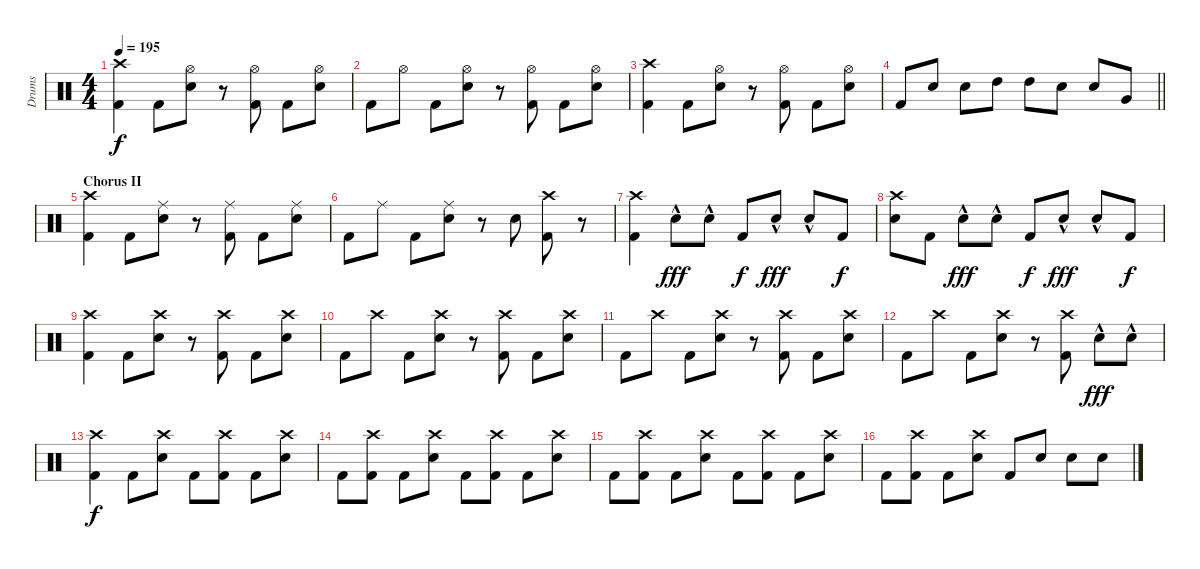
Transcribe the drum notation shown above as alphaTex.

\track ("Drums" "Drums") {instrument percussion}
\staff {score}
\articulation defaults
\ts (4 4)
\tempo 195
\clef neutral
\ks c
("Crash high (hit)" "Kick (hit) 2").4{dy f} "Kick (hit) 2".8 ("Hi-Hat (open)" "Electric Snare (hit)").8 r.8 ("Hi-Hat (open)" "Kick (hit) 2").8 "Kick (hit) 2".8 ("Hi-Hat (open)" "Electric Snare (hit)").8 |
"Kick (hit) 2".8 "Hi-Hat (open)".8 "Kick (hit) 2".8 ("Hi-Hat (open)" "Electric Snare (hit)").8 r.8 ("Hi-Hat (open)" "Kick (hit) 2").8 "Kick (hit) 2".8 ("Hi-Hat (open)" "Electric Snare (hit)").8 |
("Crash high (hit)" "Kick (hit) 2").4 "Kick (hit) 2".8 ("Hi-Hat (open)" "Electric Snare (hit)").8 r.8 ("Hi-Hat (open)" "Kick (hit) 2").8 "Kick (hit) 2".8 ("Hi-Hat (open)" "Electric Snare (hit)").8 |
\barLineRight lightlight "Kick (hit) 2".8 "Electric Snare (hit)".8 "Electric Snare (hit)".8 "High Tom (hit)".8 "High Tom (hit)".8 "Electric Snare (hit)".8 "Electric Snare (hit)".8 "Very Low Tom (hit)".8
|
\section ("" "Chorus II")
("Crash high (hit)" "Kick (hit) 2").4 "Kick (hit) 2".8 ("Ride (middle)" "Electric Snare (hit)").8 r.8 ("Ride (middle)" "Kick (hit) 2").8 "Kick (hit) 2".8 ("Ride (middle)" "Electric Snare (hit)").8 |
"Kick (hit) 2".8 "Ride (middle)".8 "Kick (hit) 2".8 ("Ride (middle)" "Electric Snare (hit)").8 r.8 "Electric Snare (hit)".8 ("Crash high (hit)" "Kick (hit) 2").8 r.8 |
("Crash high (hit)" "Kick (hit) 2").4 "Electric Snare (hit)"{hac}.8{dy fff} "Electric Snare (hit)"{hac}.8 "Kick (hit) 2".8{dy f} "Electric Snare (hit)"{hac}.8{dy fff} "Electric Snare (hit)"{hac}.8 "Kick (hit) 2".8{dy f} |
("Crash high (hit)" "Electric Snare (hit)").8 "Kick (hit) 2".8 "Electric Snare (hit)"{hac}.8{dy fff} "Electric Snare (hit)"{hac}.8 "Kick (hit) 2".8{dy f} "Electric Snare (hit)"{hac}.8{dy fff} "Electric Snare (hit)"{hac}.8 "Kick (hit) 2".8{dy f} |
("Crash high (hit)" "Kick (hit) 2").4 "Kick (hit) 2".8 ("Crash high (hit)" "Electric Snare (hit)").8 r.8 ("Crash high (hit)" "Kick (hit) 2").8 "Kick (hit) 2".8 ("Crash high (hit)" "Electric Snare (hit)").8 |
"Kick (hit) 2".8 "Crash high (hit)".8 "Kick (hit) 2".8 ("Crash high (hit)" "Electric Snare (hit)").8 r.8 ("Crash high (hit)" "Kick (hit) 2").8 "Kick (hit) 2".8 ("Crash high (hit)" "Electric Snare (hit)").8 |
"Kick (hit) 2".8 "Crash high (hit)".8 "Kick (hit) 2".8 ("Crash high (hit)" "Electric Snare (hit)").8 r.8 ("Crash high (hit)" "Kick (hit) 2").8 "Kick (hit) 2".8 ("Crash high (hit)" "Electric Snare (hit)").8 |
"Kick (hit) 2".8 "Crash high (hit)".8 "Kick (hit) 2".8 ("Crash high (hit)" "Electric Snare (hit)").8 r.8 ("Crash high (hit)" "Kick (hit) 2").8 "Electric Snare (hit)"{hac}.8{dy fff} "Electric Snare (hit)"{hac}.8 |
("Crash high (hit)" "Kick (hit) 2").4{dy f} "Kick (hit) 2".8 ("Crash high (hit)" "Electric Snare (hit)").8 "Kick (hit) 2".8 ("Crash high (hit)" "Kick (hit) 2").8 "Kick (hit) 2".8 ("Crash high (hit)" "Electric Snare (hit)").8 |
"Kick (hit) 2".8 ("Crash high (hit)" "Kick (hit) 2").8 "Kick (hit) 2".8 ("Crash high (hit)" "Electric Snare (hit)").8 "Kick (hit) 2".8 ("Crash high (hit)" "Kick (hit) 2").8 "Kick (hit) 2".8 ("Crash high (hit)" "Electric Snare (hit)").8 |
"Kick (hit) 2".8 ("Crash high (hit)" "Kick (hit) 2").8 "Kick (hit) 2".8 ("Crash high (hit)" "Electric Snare (hit)").8 "Kick (hit) 2".8 ("Crash high (hit)" "Kick (hit) 2").8 "Kick (hit) 2".8 ("Crash high (hit)" "Electric Snare (hit)").8 |
"Kick (hit) 2".8 ("Crash high (hit)" "Kick (hit) 2").8 "Kick (hit) 2".8 ("Crash high (hit)" "Electric Snare (hit)").8 "Kick (hit) 2".8 "Electric Snare (hit)".8 "Electric Snare (hit)".8 "Electric Snare (hit)".8
